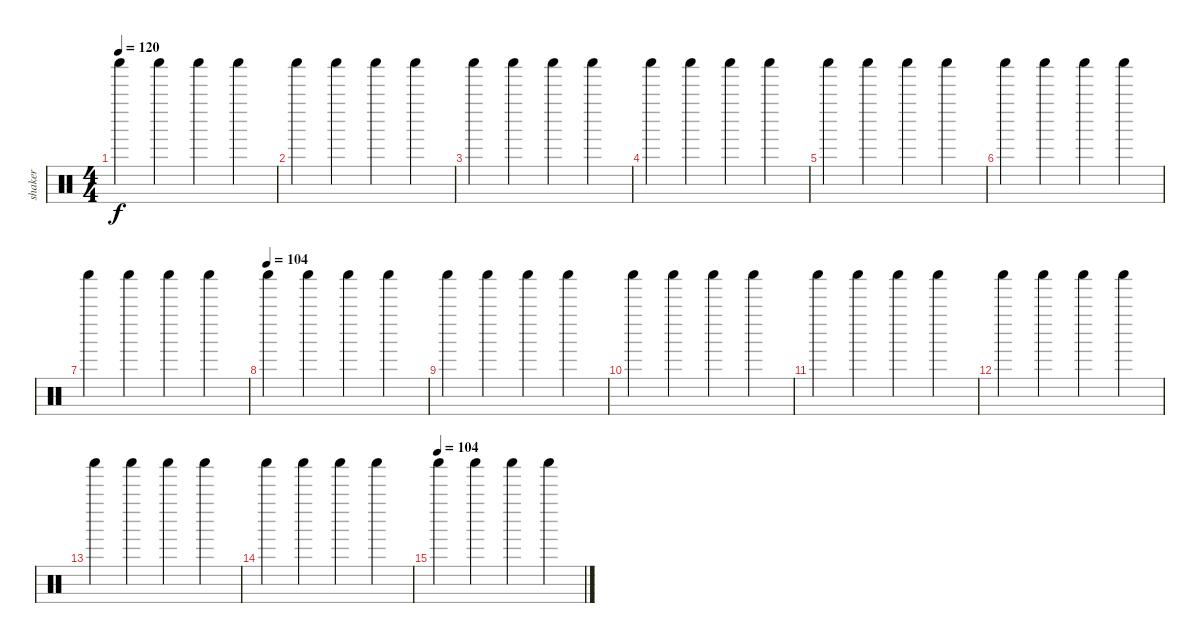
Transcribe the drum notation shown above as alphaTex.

\track ("shaker" "shaker") {instrument percussion}
\staff {score}
\articulation defaults
\ts (4 4)
\tempo 120
\clef neutral
\ks c "Shaker (hit)".4{dy f} "Shaker (hit)".4 "Shaker (hit)".4 "Shaker (hit)".4
|
"Shaker (hit)".4 "Shaker (hit)".4 "Shaker (hit)".4 "Shaker (hit)".4 |
"Shaker (hit)".4 "Shaker (hit)".4 "Shaker (hit)".4 "Shaker (hit)".4 |
"Shaker (hit)".4 "Shaker (hit)".4 "Shaker (hit)".4 "Shaker (hit)".4 |
"Shaker (hit)".4 "Shaker (hit)".4 "Shaker (hit)".4 "Shaker (hit)".4 |
"Shaker (hit)".4 "Shaker (hit)".4 "Shaker (hit)".4 "Shaker (hit)".4 |
"Shaker (hit)".4 "Shaker (hit)".4 "Shaker (hit)".4 "Shaker (hit)".4 |
\tempo (104)
"Shaker (hit)".4 "Shaker (hit)".4 "Shaker (hit)".4 "Shaker (hit)".4 |
"Shaker (hit)".4 "Shaker (hit)".4 "Shaker (hit)".4 "Shaker (hit)".4 |
"Shaker (hit)".4 "Shaker (hit)".4 "Shaker (hit)".4 "Shaker (hit)".4 |
"Shaker (hit)".4 "Shaker (hit)".4 "Shaker (hit)".4 "Shaker (hit)".4 |
"Shaker (hit)".4 "Shaker (hit)".4 "Shaker (hit)".4 "Shaker (hit)".4 |
"Shaker (hit)".4 "Shaker (hit)".4 "Shaker (hit)".4 "Shaker (hit)".4 |
"Shaker (hit)".4 "Shaker (hit)".4 "Shaker (hit)".4 "Shaker (hit)".4 |
\tempo (104)
"Shaker (hit)".4 "Shaker (hit)".4 "Shaker (hit)".4 "Shaker (hit)".4
